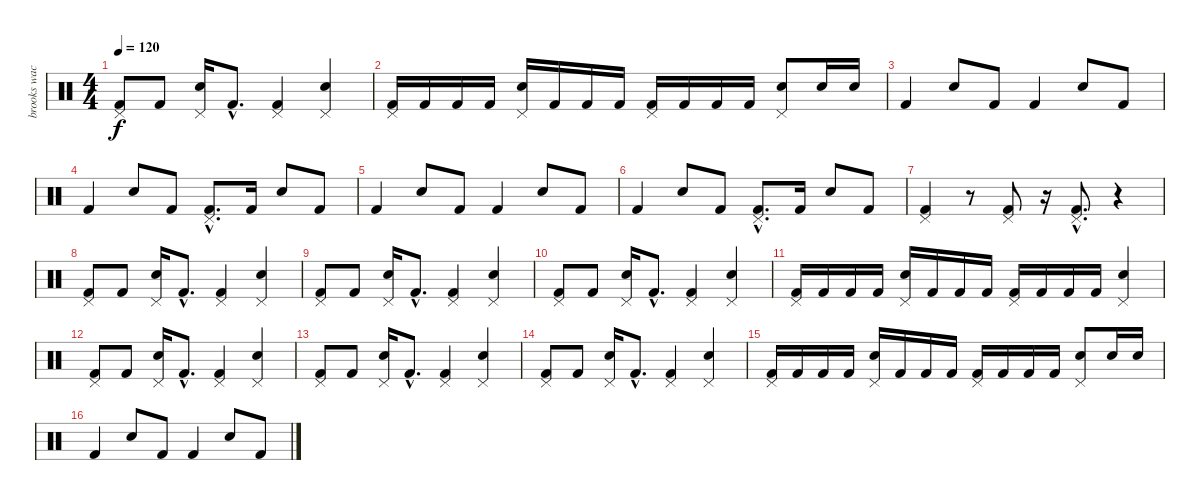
\track ("brooks wackerman" "brooks wac") {instrument percussion}
\staff {score}
\articulation defaults
\ts (4 4)
\tempo 120
\clef neutral
\ks c
("Pedal Hi-Hat (hit)" "Kick (hit) 2").8{dy f} "Kick (hit) 2".8 ("Pedal Hi-Hat (hit)" "Electric Snare (hit)").16 "Kick (hit) 2"{hac}.8{d} ("Pedal Hi-Hat (hit)" "Kick (hit) 2").4 ("Pedal Hi-Hat (hit)" "Electric Snare (hit)").4 |
("Pedal Hi-Hat (hit)" "Kick (hit) 2").16 "Kick (hit) 2".16 "Kick (hit) 2".16 "Kick (hit) 2".16 ("Pedal Hi-Hat (hit)" "Electric Snare (hit)").16 "Kick (hit) 2".16 "Kick (hit) 2".16 "Kick (hit) 2".16 ("Pedal Hi-Hat (hit)" "Kick (hit) 2").16 "Kick (hit) 2".16 "Kick (hit) 2".16 "Kick (hit) 2".16 ("Pedal Hi-Hat (hit)" "Electric Snare (hit)").8 "Electric Snare (hit)".16 "Electric Snare (hit)".16 |
"Kick (hit) 2".4 "Electric Snare (hit)".8 "Kick (hit) 2".8 "Kick (hit) 2".4 "Electric Snare (hit)".8 "Kick (hit) 2".8 |
"Kick (hit) 2".4 "Electric Snare (hit)".8 "Kick (hit) 2".8 ("Pedal Hi-Hat (hit)"{hac} "Kick (hit) 2"{hac}).8{d} "Kick (hit) 2".16 "Electric Snare (hit)".8 "Kick (hit) 2".8 |
"Kick (hit) 2".4 "Electric Snare (hit)".8 "Kick (hit) 2".8 "Kick (hit) 2".4 "Electric Snare (hit)".8 "Kick (hit) 2".8 |
"Kick (hit) 2".4 "Electric Snare (hit)".8 "Kick (hit) 2".8 ("Pedal Hi-Hat (hit)"{hac} "Kick (hit) 2"{hac}).8{d} "Kick (hit) 2".16 "Electric Snare (hit)".8 "Kick (hit) 2".8 |
("Pedal Hi-Hat (hit)" "Kick (hit) 2").4 r.8 ("Pedal Hi-Hat (hit)" "Kick (hit) 2").8 r.16 ("Pedal Hi-Hat (hit)"{hac} "Kick (hit) 2"{hac}).8{d} r.4 |
("Pedal Hi-Hat (hit)" "Kick (hit) 2").8 "Kick (hit) 2".8 ("Pedal Hi-Hat (hit)" "Electric Snare (hit)").16 "Kick (hit) 2"{hac}.8{d} ("Pedal Hi-Hat (hit)" "Kick (hit) 2").4 ("Pedal Hi-Hat (hit)" "Electric Snare (hit)").4 |
("Pedal Hi-Hat (hit)" "Kick (hit) 2").8 "Kick (hit) 2".8 ("Pedal Hi-Hat (hit)" "Electric Snare (hit)").16 "Kick (hit) 2"{hac}.8{d} ("Pedal Hi-Hat (hit)" "Kick (hit) 2").4 ("Pedal Hi-Hat (hit)" "Electric Snare (hit)").4 |
("Pedal Hi-Hat (hit)" "Kick (hit) 2").8 "Kick (hit) 2".8 ("Pedal Hi-Hat (hit)" "Electric Snare (hit)").16 "Kick (hit) 2"{hac}.8{d} ("Pedal Hi-Hat (hit)" "Kick (hit) 2").4 ("Pedal Hi-Hat (hit)" "Electric Snare (hit)").4 |
("Pedal Hi-Hat (hit)" "Kick (hit) 2").16 "Kick (hit) 2".16 "Kick (hit) 2".16 "Kick (hit) 2".16 ("Pedal Hi-Hat (hit)" "Electric Snare (hit)").16 "Kick (hit) 2".16 "Kick (hit) 2".16 "Kick (hit) 2".16 ("Pedal Hi-Hat (hit)" "Kick (hit) 2").16 "Kick (hit) 2".16 "Kick (hit) 2".16 "Kick (hit) 2".16 ("Pedal Hi-Hat (hit)" "Electric Snare (hit)").4 |
("Pedal Hi-Hat (hit)" "Kick (hit) 2").8 "Kick (hit) 2".8 ("Pedal Hi-Hat (hit)" "Electric Snare (hit)").16 "Kick (hit) 2"{hac}.8{d} ("Pedal Hi-Hat (hit)" "Kick (hit) 2").4 ("Pedal Hi-Hat (hit)" "Electric Snare (hit)").4 |
("Pedal Hi-Hat (hit)" "Kick (hit) 2").8 "Kick (hit) 2".8 ("Pedal Hi-Hat (hit)" "Electric Snare (hit)").16 "Kick (hit) 2"{hac}.8{d} ("Pedal Hi-Hat (hit)" "Kick (hit) 2").4 ("Pedal Hi-Hat (hit)" "Electric Snare (hit)").4 |
("Pedal Hi-Hat (hit)" "Kick (hit) 2").8 "Kick (hit) 2".8 ("Pedal Hi-Hat (hit)" "Electric Snare (hit)").16 "Kick (hit) 2"{hac}.8{d} ("Pedal Hi-Hat (hit)" "Kick (hit) 2").4 ("Pedal Hi-Hat (hit)" "Electric Snare (hit)").4 |
("Pedal Hi-Hat (hit)" "Kick (hit) 2").16 "Kick (hit) 2".16 "Kick (hit) 2".16 "Kick (hit) 2".16 ("Pedal Hi-Hat (hit)" "Electric Snare (hit)").16 "Kick (hit) 2".16 "Kick (hit) 2".16 "Kick (hit) 2".16 ("Pedal Hi-Hat (hit)" "Kick (hit) 2").16 "Kick (hit) 2".16 "Kick (hit) 2".16 "Kick (hit) 2".16 ("Pedal Hi-Hat (hit)" "Electric Snare (hit)").8 "Electric Snare (hit)".16 "Electric Snare (hit)".16 |
"Kick (hit) 2".4 "Electric Snare (hit)".8 "Kick (hit) 2".8 "Kick (hit) 2".4 "Electric Snare (hit)".8 "Kick (hit) 2".8
